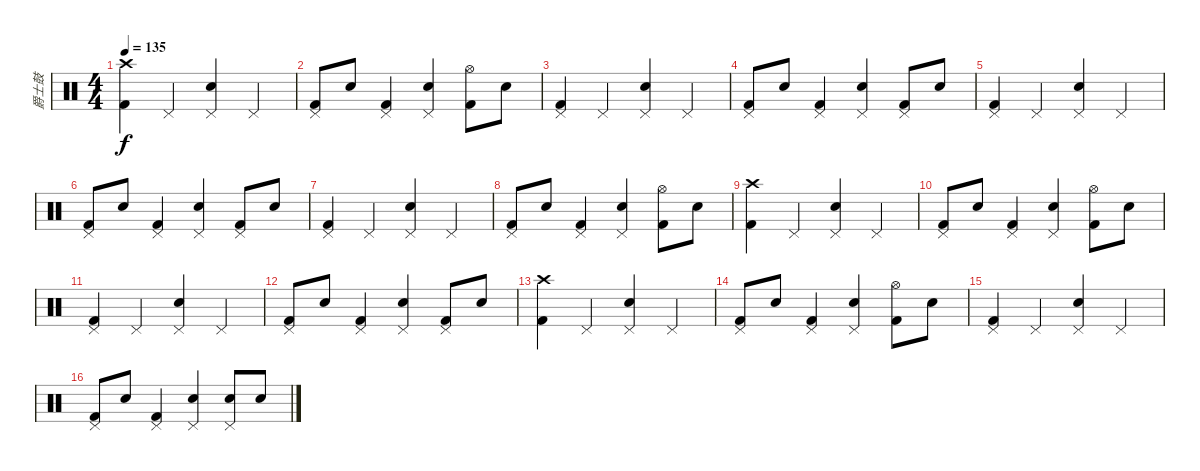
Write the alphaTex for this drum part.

\track ("爵士鼓" "爵士鼓") {instrument percussion}
\staff {score}
\articulation defaults
\ts (4 4)
\tempo 135
\clef neutral
\ks c
("Crash high (hit)" "Kick (hit) 2").4{dy f} "Pedal Hi-Hat (hit)".4 ("Pedal Hi-Hat (hit)" "Snare (hit) 2").4 "Pedal Hi-Hat (hit)".4 |
("Pedal Hi-Hat (hit)" "Kick (hit) 2").8 "Snare (hit) 2".8 ("Pedal Hi-Hat (hit)" "Kick (hit) 2").4 ("Pedal Hi-Hat (hit)" "Snare (hit) 2").4 ("Hi-Hat (open)" "Kick (hit) 2").8 "Snare (hit) 2".8 |
("Pedal Hi-Hat (hit)" "Kick (hit) 2").4 "Pedal Hi-Hat (hit)".4 ("Pedal Hi-Hat (hit)" "Snare (hit) 2").4 "Pedal Hi-Hat (hit)".4 |
("Pedal Hi-Hat (hit)" "Kick (hit) 2").8 "Snare (hit) 2".8 ("Pedal Hi-Hat (hit)" "Kick (hit) 2").4 ("Pedal Hi-Hat (hit)" "Snare (hit) 2").4 ("Pedal Hi-Hat (hit)" "Kick (hit) 2").8 "Snare (hit) 2".8 |
("Pedal Hi-Hat (hit)" "Kick (hit) 2").4 "Pedal Hi-Hat (hit)".4 ("Pedal Hi-Hat (hit)" "Snare (hit) 2").4 "Pedal Hi-Hat (hit)".4 |
("Pedal Hi-Hat (hit)" "Kick (hit) 2").8 "Snare (hit) 2".8 ("Pedal Hi-Hat (hit)" "Kick (hit) 2").4 ("Pedal Hi-Hat (hit)" "Snare (hit) 2").4 ("Pedal Hi-Hat (hit)" "Kick (hit) 2").8 "Snare (hit) 2".8 |
("Pedal Hi-Hat (hit)" "Kick (hit) 2").4 "Pedal Hi-Hat (hit)".4 ("Pedal Hi-Hat (hit)" "Snare (hit) 2").4 "Pedal Hi-Hat (hit)".4 |
("Pedal Hi-Hat (hit)" "Kick (hit) 2").8 "Snare (hit) 2".8 ("Pedal Hi-Hat (hit)" "Kick (hit) 2").4 ("Pedal Hi-Hat (hit)" "Snare (hit) 2").4 ("Hi-Hat (open)" "Kick (hit) 2").8 "Snare (hit) 2".8 |
("Crash high (hit)" "Kick (hit) 2").4 "Pedal Hi-Hat (hit)".4 ("Pedal Hi-Hat (hit)" "Snare (hit) 2").4 "Pedal Hi-Hat (hit)".4 |
("Pedal Hi-Hat (hit)" "Kick (hit) 2").8 "Snare (hit) 2".8 ("Pedal Hi-Hat (hit)" "Kick (hit) 2").4 ("Pedal Hi-Hat (hit)" "Snare (hit) 2").4 ("Hi-Hat (open)" "Kick (hit) 2").8 "Snare (hit) 2".8 |
("Pedal Hi-Hat (hit)" "Kick (hit) 2").4 "Pedal Hi-Hat (hit)".4 ("Pedal Hi-Hat (hit)" "Snare (hit) 2").4 "Pedal Hi-Hat (hit)".4 |
("Pedal Hi-Hat (hit)" "Kick (hit) 2").8 "Snare (hit) 2".8 ("Pedal Hi-Hat (hit)" "Kick (hit) 2").4 ("Pedal Hi-Hat (hit)" "Snare (hit) 2").4 ("Pedal Hi-Hat (hit)" "Kick (hit) 2").8 "Snare (hit) 2".8 |
("Crash high (hit)" "Kick (hit) 2").4 "Pedal Hi-Hat (hit)".4 ("Pedal Hi-Hat (hit)" "Snare (hit) 2").4 "Pedal Hi-Hat (hit)".4 |
("Pedal Hi-Hat (hit)" "Kick (hit) 2").8 "Snare (hit) 2".8 ("Pedal Hi-Hat (hit)" "Kick (hit) 2").4 ("Pedal Hi-Hat (hit)" "Snare (hit) 2").4 ("Hi-Hat (open)" "Kick (hit) 2").8 "Snare (hit) 2".8 |
("Pedal Hi-Hat (hit)" "Kick (hit) 2").4 "Pedal Hi-Hat (hit)".4 ("Pedal Hi-Hat (hit)" "Snare (hit) 2").4 "Pedal Hi-Hat (hit)".4 |
("Pedal Hi-Hat (hit)" "Kick (hit) 2").8 "Snare (hit) 2".8 ("Pedal Hi-Hat (hit)" "Kick (hit) 2").4 ("Pedal Hi-Hat (hit)" "Snare (hit) 2").4 ("Pedal Hi-Hat (hit)" "Snare (hit) 2").8 "Electric Snare (hit)".8
